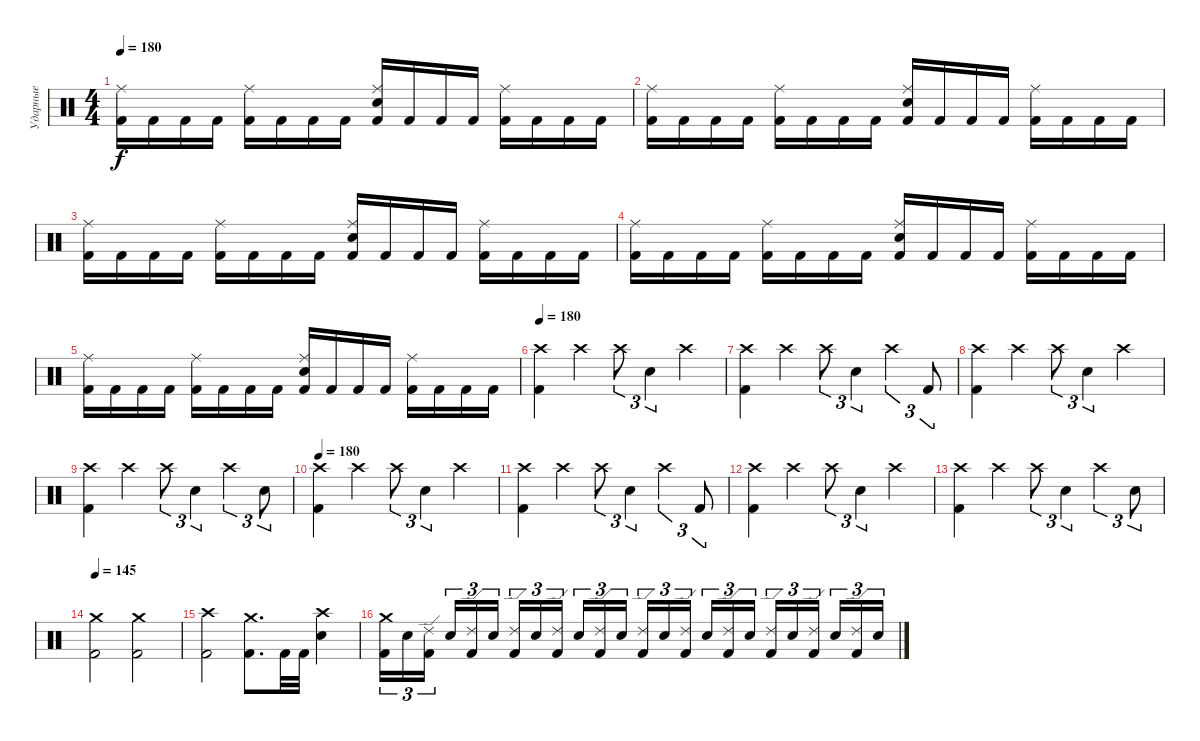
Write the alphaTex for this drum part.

\track ("Ударные" "Ударные") {instrument percussion}
\staff {score}
\articulation defaults
\ts (4 4)
\tempo 180
\clef neutral
\ks c
("Kick (hit) 2" "Ride (middle)").16{dy f} "Kick (hit) 2".16 "Kick (hit) 2".16 "Kick (hit) 2".16 ("Kick (hit) 2" "Ride (middle)").16 "Kick (hit) 2".16 "Kick (hit) 2".16 "Kick (hit) 2".16 ("Kick (hit) 2" "Electric Snare (hit)" "Ride (middle)").16 "Kick (hit) 2".16 "Kick (hit) 2".16 "Kick (hit) 2".16 ("Kick (hit) 2" "Ride (middle)").16 "Kick (hit) 2".16 "Kick (hit) 2".16 "Kick (hit) 2".16 |
("Kick (hit) 2" "Ride (middle)").16 "Kick (hit) 2".16 "Kick (hit) 2".16 "Kick (hit) 2".16 ("Kick (hit) 2" "Ride (middle)").16 "Kick (hit) 2".16 "Kick (hit) 2".16 "Kick (hit) 2".16 ("Kick (hit) 2" "Electric Snare (hit)" "Ride (middle)").16 "Kick (hit) 2".16 "Kick (hit) 2".16 "Kick (hit) 2".16 ("Kick (hit) 2" "Ride (middle)").16 "Kick (hit) 2".16 "Kick (hit) 2".16 "Kick (hit) 2".16 |
("Kick (hit) 2" "Ride (middle)").16 "Kick (hit) 2".16 "Kick (hit) 2".16 "Kick (hit) 2".16 ("Kick (hit) 2" "Ride (middle)").16 "Kick (hit) 2".16 "Kick (hit) 2".16 "Kick (hit) 2".16 ("Kick (hit) 2" "Electric Snare (hit)" "Ride (middle)").16 "Kick (hit) 2".16 "Kick (hit) 2".16 "Kick (hit) 2".16 ("Kick (hit) 2" "Ride (middle)").16 "Kick (hit) 2".16 "Kick (hit) 2".16 "Kick (hit) 2".16 |
("Kick (hit) 2" "Ride (middle)").16 "Kick (hit) 2".16 "Kick (hit) 2".16 "Kick (hit) 2".16 ("Kick (hit) 2" "Ride (middle)").16 "Kick (hit) 2".16 "Kick (hit) 2".16 "Kick (hit) 2".16 ("Kick (hit) 2" "Electric Snare (hit)" "Ride (middle)").16 "Kick (hit) 2".16 "Kick (hit) 2".16 "Kick (hit) 2".16 ("Kick (hit) 2" "Ride (middle)").16 "Kick (hit) 2".16 "Kick (hit) 2".16 "Kick (hit) 2".16 |
("Kick (hit) 2" "Ride (middle)").16 "Kick (hit) 2".16 "Kick (hit) 2".16 "Kick (hit) 2".16 ("Kick (hit) 2" "Ride (middle)").16 "Kick (hit) 2".16 "Kick (hit) 2".16 "Kick (hit) 2".16 ("Kick (hit) 2" "Electric Snare (hit)" "Ride (middle)").16 "Kick (hit) 2".16 "Kick (hit) 2".16 "Kick (hit) 2".16 ("Kick (hit) 2" "Ride (middle)").16 "Kick (hit) 2".16 "Kick (hit) 2".16 "Kick (hit) 2".16 |
\tempo 180
("Kick (hit) 2" "Crash high (hit)").4 "Crash high (hit)".4 "Crash high (hit)".8{tu (3 2)} "Electric Snare (hit)".4{tu (3 2)} "Crash high (hit)".4 |
("Kick (hit) 2" "Crash high (hit)").4 "Crash high (hit)".4 "Crash high (hit)".8{tu (3 2)} "Electric Snare (hit)".4{tu (3 2)} "Crash high (hit)".4{tu (3 2)} "Kick (hit) 2".8{tu (3 2)} |
("Kick (hit) 2" "Crash high (hit)").4 "Crash high (hit)".4 "Crash high (hit)".8{tu (3 2)} "Electric Snare (hit)".4{tu (3 2)} "Crash high (hit)".4 |
("Kick (hit) 2" "Crash high (hit)").4 "Crash high (hit)".4 "Crash high (hit)".8{tu (3 2)} "Electric Snare (hit)".4{tu (3 2)} "Crash high (hit)".4{tu (3 2)} "Electric Snare (hit)".8{tu (3 2)} |
\tempo 180
("Kick (hit) 2" "Crash high (hit)").4 "Crash high (hit)".4 "Crash high (hit)".8{tu (3 2)} "Electric Snare (hit)".4{tu (3 2)} "Crash high (hit)".4 |
("Kick (hit) 2" "Crash high (hit)").4 "Crash high (hit)".4 "Crash high (hit)".8{tu (3 2)} "Electric Snare (hit)".4{tu (3 2)} "Crash high (hit)".4{tu (3 2)} "Kick (hit) 2".8{tu (3 2)} |
("Kick (hit) 2" "Crash high (hit)").4 "Crash high (hit)".4 "Crash high (hit)".8{tu (3 2)} "Electric Snare (hit)".4{tu (3 2)} "Crash high (hit)".4 |
("Kick (hit) 2" "Crash high (hit)").4 "Crash high (hit)".4 "Crash high (hit)".8{tu (3 2)} "Electric Snare (hit)".4{tu (3 2)} "Crash high (hit)".4{tu (3 2)} "Electric Snare (hit)".8{tu (3 2)} |
\tempo 145
("Kick (hit) 2" "Crash medium (hit)").2 ("Kick (hit) 2" "Crash medium (hit)").2 |
("Kick (hit) 2" "Crash high (hit)").2 ("Kick (hit) 2" "Crash medium (hit)").8{d} "Kick (hit) 2".32 "Kick (hit) 2".32 ("Electric Snare (hit)" "Crash high (hit)").4 |
("Kick (hit) 2" "Crash medium (hit)").16{tu (3 2)} "Snare (hit) 2".16{tu (3 2)} ("Kick (hit) 2" "Ride (edge) 2").16{tu (3 2) beam splitsecondary} "Snare (hit) 2".16{tu (3 2)} ("Kick (hit) 2" "Ride (edge) 2").16{tu (3 2)} "Snare (hit) 2".16{tu (3 2)} ("Kick (hit) 2" "Ride (edge) 2").16{tu (3 2)} "Snare (hit) 2".16{tu (3 2)} ("Kick (hit) 2" "Ride (edge) 2").16{tu (3 2) beam splitsecondary} "Snare (hit) 2".16{tu (3 2)} ("Kick (hit) 2" "Ride (edge) 2").16{tu (3 2)} "Snare (hit) 2".16{tu (3 2)} ("Kick (hit) 2" "Ride (edge) 2").16{tu (3 2)} "Snare (hit) 2".16{tu (3 2)} ("Kick (hit) 2" "Ride (edge) 2").16{tu (3 2) beam splitsecondary} "Snare (hit) 2".16{tu (3 2)} ("Kick (hit) 2" "Ride (edge) 2").16{tu (3 2)} "Snare (hit) 2".16{tu (3 2)} ("Kick (hit) 2" "Ride (edge) 2").16{tu (3 2)} "Snare (hit) 2".16{tu (3 2)} ("Kick (hit) 2" "Ride (edge) 2").16{tu (3 2) beam splitsecondary} "Snare (hit) 2".16{tu (3 2)} ("Kick (hit) 2" "Ride (edge) 2").16{tu (3 2)} "Snare (hit) 2".16{tu (3 2)}
